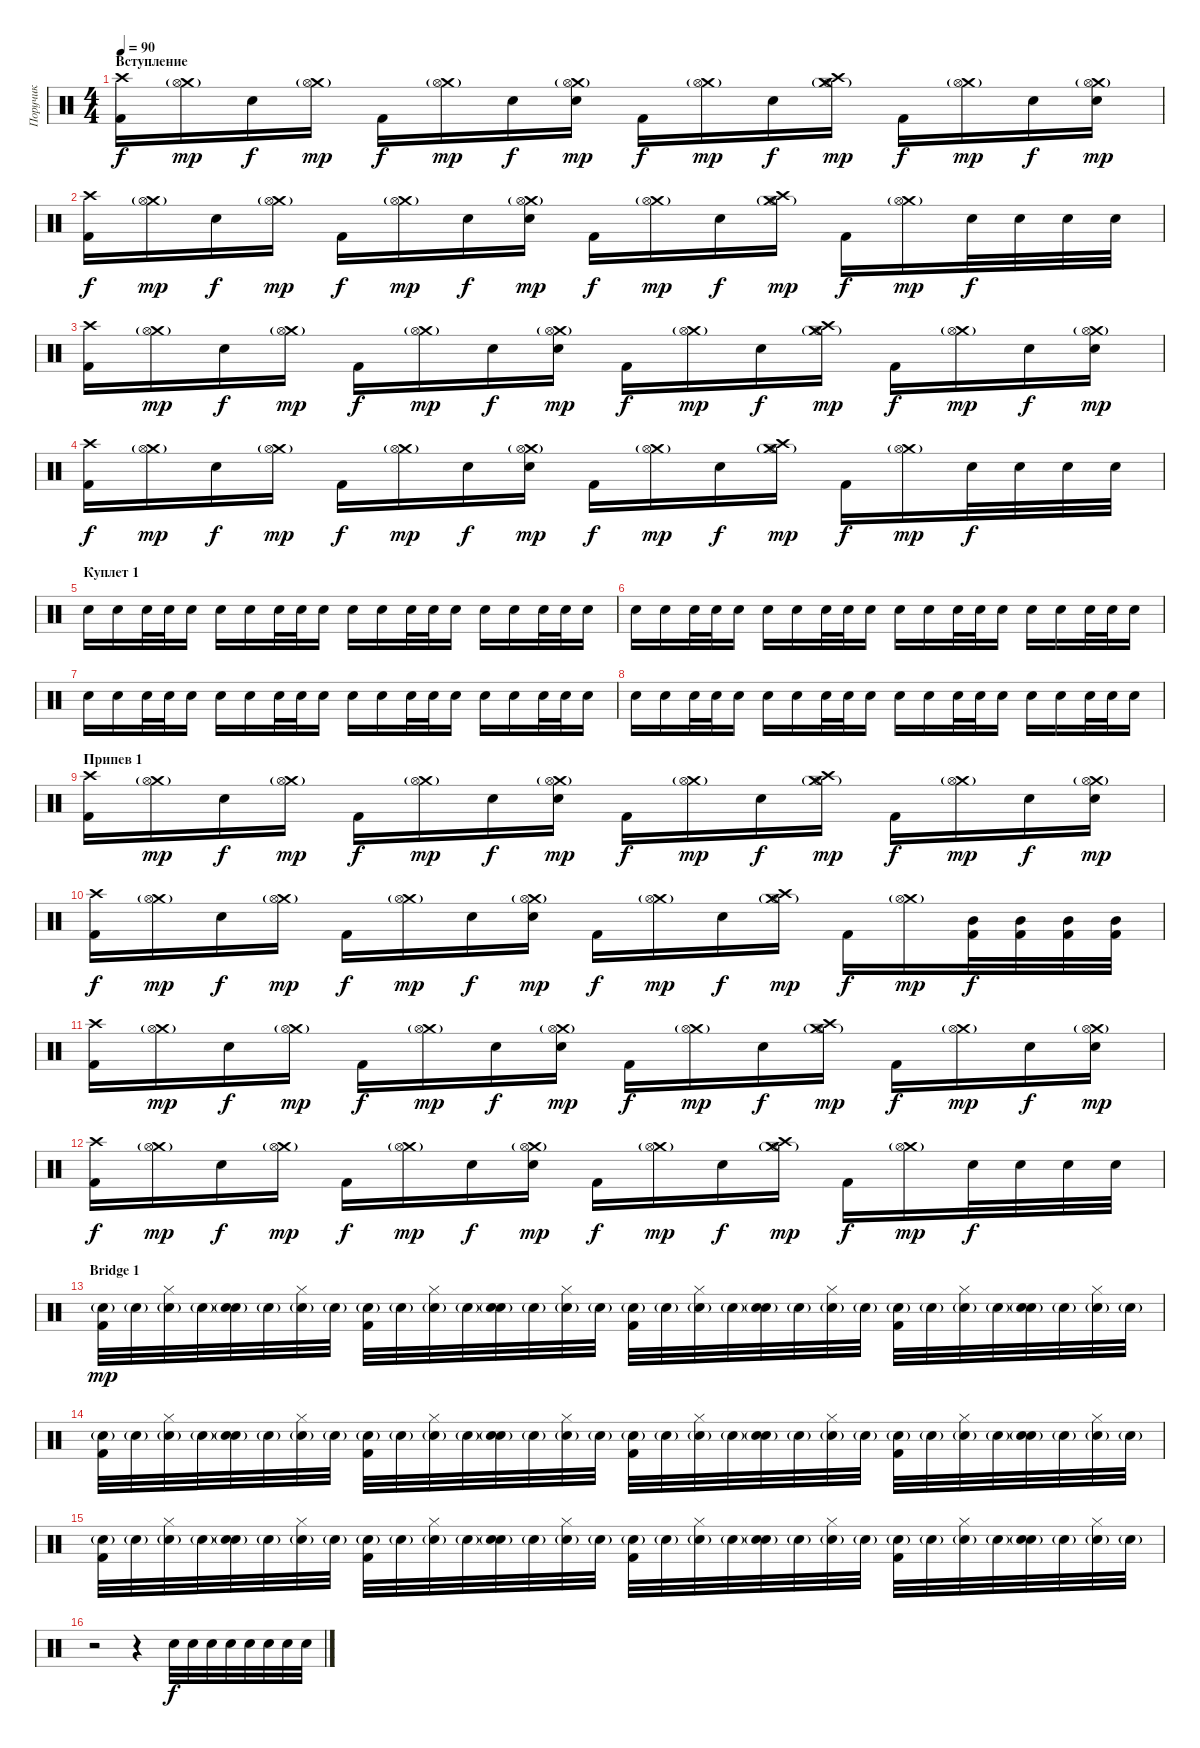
\track ("Поручик" "Поручик") {instrument percussion}
\staff {score}
\articulation defaults
\ts (4 4)
\section ("" "Вступление")
\tempo 90
\clef neutral
\ks c
("Crash high (hit)" "Kick (hit) 2").16{dy f} ("Crash medium (hit)"{g} "Hi-Hat (open)"{g}).16{dy mp} "Snare (hit) 2".16{dy f} ("Crash medium (hit)"{g} "Hi-Hat (open)"{g}).16{dy mp} "Kick (hit) 2".16{dy f} ("Crash medium (hit)"{g} "Hi-Hat (open)"{g}).16{dy mp} "Snare (hit) 2".16{dy f} ("Snare (hit) 2" "Crash medium (hit)"{g} "Hi-Hat (open)"{g}).16{dy mp} "Kick (hit) 2".16{dy f} ("Crash medium (hit)"{g} "Hi-Hat (open)"{g}).16{dy mp} "Snare (hit) 2".16{dy f} ("Crash high (hit)" "Crash medium (hit)"{g} "Hi-Hat (open)"{g}).16{dy mp} "Kick (hit) 2".16{dy f} ("Crash medium (hit)"{g} "Hi-Hat (open)"{g}).16{dy mp} "Snare (hit) 2".16{dy f} ("Snare (hit) 2" "Crash medium (hit)"{g} "Hi-Hat (open)"{g}).16{dy mp} |
("Crash high (hit)" "Kick (hit) 2").16{dy f} ("Crash medium (hit)"{g} "Hi-Hat (open)"{g}).16{dy mp} "Snare (hit) 2".16{dy f} ("Crash medium (hit)"{g} "Hi-Hat (open)"{g}).16{dy mp} "Kick (hit) 2".16{dy f} ("Crash medium (hit)"{g} "Hi-Hat (open)"{g}).16{dy mp} "Snare (hit) 2".16{dy f} ("Snare (hit) 2" "Crash medium (hit)"{g} "Hi-Hat (open)"{g}).16{dy mp} "Kick (hit) 2".16{dy f} ("Crash medium (hit)"{g} "Hi-Hat (open)"{g}).16{dy mp} "Snare (hit) 2".16{dy f} ("Crash high (hit)" "Crash medium (hit)"{g} "Hi-Hat (open)"{g}).16{dy mp} "Kick (hit) 2".16{dy f} ("Crash medium (hit)"{g} "Hi-Hat (open)"{g}).16{dy mp} "Snare (hit) 2".32{dy f} "Snare (hit) 2".32 "Snare (hit) 2".32 "Snare (hit) 2".32 |
("Crash high (hit)" "Kick (hit) 2").16 ("Crash medium (hit)"{g} "Hi-Hat (open)"{g}).16{dy mp} "Snare (hit) 2".16{dy f} ("Crash medium (hit)"{g} "Hi-Hat (open)"{g}).16{dy mp} "Kick (hit) 2".16{dy f} ("Crash medium (hit)"{g} "Hi-Hat (open)"{g}).16{dy mp} "Snare (hit) 2".16{dy f} ("Snare (hit) 2" "Crash medium (hit)"{g} "Hi-Hat (open)"{g}).16{dy mp} "Kick (hit) 2".16{dy f} ("Crash medium (hit)"{g} "Hi-Hat (open)"{g}).16{dy mp} "Snare (hit) 2".16{dy f} ("Crash high (hit)" "Crash medium (hit)"{g} "Hi-Hat (open)"{g}).16{dy mp} "Kick (hit) 2".16{dy f} ("Crash medium (hit)"{g} "Hi-Hat (open)"{g}).16{dy mp} "Snare (hit) 2".16{dy f} ("Snare (hit) 2" "Crash medium (hit)"{g} "Hi-Hat (open)"{g}).16{dy mp} |
("Crash high (hit)" "Kick (hit) 2").16{dy f} ("Crash medium (hit)"{g} "Hi-Hat (open)"{g}).16{dy mp} "Snare (hit) 2".16{dy f} ("Crash medium (hit)"{g} "Hi-Hat (open)"{g}).16{dy mp} "Kick (hit) 2".16{dy f} ("Crash medium (hit)"{g} "Hi-Hat (open)"{g}).16{dy mp} "Snare (hit) 2".16{dy f} ("Snare (hit) 2" "Crash medium (hit)"{g} "Hi-Hat (open)"{g}).16{dy mp} "Kick (hit) 2".16{dy f} ("Crash medium (hit)"{g} "Hi-Hat (open)"{g}).16{dy mp} "Snare (hit) 2".16{dy f} ("Crash high (hit)" "Crash medium (hit)"{g} "Hi-Hat (open)"{g}).16{dy mp} "Kick (hit) 2".16{dy f} ("Crash medium (hit)"{g} "Hi-Hat (open)"{g}).16{dy mp} "Snare (hit) 2".32{dy f} "Snare (hit) 2".32 "Snare (hit) 2".32 "Snare (hit) 2".32 |
\section ("" "Куплет 1")
"Snare (hit) 2".16 "Snare (hit) 2".16 "Snare (hit) 2".32 "Snare (hit) 2".32 "Snare (hit) 2".16 "Snare (hit) 2".16 "Snare (hit) 2".16 "Snare (hit) 2".32 "Snare (hit) 2".32 "Snare (hit) 2".16 "Snare (hit) 2".16 "Snare (hit) 2".16 "Snare (hit) 2".32 "Snare (hit) 2".32 "Snare (hit) 2".16 "Snare (hit) 2".16 "Snare (hit) 2".16 "Snare (hit) 2".32 "Snare (hit) 2".32 "Snare (hit) 2".16 |
"Snare (hit) 2".16 "Snare (hit) 2".16 "Snare (hit) 2".32 "Snare (hit) 2".32 "Snare (hit) 2".16 "Snare (hit) 2".16 "Snare (hit) 2".16 "Snare (hit) 2".32 "Snare (hit) 2".32 "Snare (hit) 2".16 "Snare (hit) 2".16 "Snare (hit) 2".16 "Snare (hit) 2".32 "Snare (hit) 2".32 "Snare (hit) 2".16 "Snare (hit) 2".16 "Snare (hit) 2".16 "Snare (hit) 2".32 "Snare (hit) 2".32 "Snare (hit) 2".16 |
"Snare (hit) 2".16 "Snare (hit) 2".16 "Snare (hit) 2".32 "Snare (hit) 2".32 "Snare (hit) 2".16 "Snare (hit) 2".16 "Snare (hit) 2".16 "Snare (hit) 2".32 "Snare (hit) 2".32 "Snare (hit) 2".16 "Snare (hit) 2".16 "Snare (hit) 2".16 "Snare (hit) 2".32 "Snare (hit) 2".32 "Snare (hit) 2".16 "Snare (hit) 2".16 "Snare (hit) 2".16 "Snare (hit) 2".32 "Snare (hit) 2".32 "Snare (hit) 2".16 |
"Snare (hit) 2".16 "Snare (hit) 2".16 "Snare (hit) 2".32 "Snare (hit) 2".32 "Snare (hit) 2".16 "Snare (hit) 2".16 "Snare (hit) 2".16 "Snare (hit) 2".32 "Snare (hit) 2".32 "Snare (hit) 2".16 "Snare (hit) 2".16 "Snare (hit) 2".16 "Snare (hit) 2".32 "Snare (hit) 2".32 "Snare (hit) 2".16 "Snare (hit) 2".16 "Snare (hit) 2".16 "Snare (hit) 2".32 "Snare (hit) 2".32 "Snare (hit) 2".16 |
\section ("" "Припев 1")
("Crash high (hit)" "Kick (hit) 2").16 ("Crash medium (hit)"{g} "Hi-Hat (open)"{g}).16{dy mp} "Snare (hit) 2".16{dy f} ("Crash medium (hit)"{g} "Hi-Hat (open)"{g}).16{dy mp} "Kick (hit) 2".16{dy f} ("Crash medium (hit)"{g} "Hi-Hat (open)"{g}).16{dy mp} "Snare (hit) 2".16{dy f} ("Snare (hit) 2" "Crash medium (hit)"{g} "Hi-Hat (open)"{g}).16{dy mp} "Kick (hit) 2".16{dy f} ("Crash medium (hit)"{g} "Hi-Hat (open)"{g}).16{dy mp} "Snare (hit) 2".16{dy f} ("Crash high (hit)" "Crash medium (hit)"{g} "Hi-Hat (open)"{g}).16{dy mp} "Kick (hit) 2".16{dy f} ("Crash medium (hit)"{g} "Hi-Hat (open)"{g}).16{dy mp} "Snare (hit) 2".16{dy f} ("Snare (hit) 2" "Crash medium (hit)"{g} "Hi-Hat (open)"{g}).16{dy mp} |
("Crash high (hit)" "Kick (hit) 2").16{dy f} ("Crash medium (hit)"{g} "Hi-Hat (open)"{g}).16{dy mp} "Snare (hit) 2".16{dy f} ("Crash medium (hit)"{g} "Hi-Hat (open)"{g}).16{dy mp} "Kick (hit) 2".16{dy f} ("Crash medium (hit)"{g} "Hi-Hat (open)"{g}).16{dy mp} "Snare (hit) 2".16{dy f} ("Snare (hit) 2" "Crash medium (hit)"{g} "Hi-Hat (open)"{g}).16{dy mp} "Kick (hit) 2".16{dy f} ("Crash medium (hit)"{g} "Hi-Hat (open)"{g}).16{dy mp} "Snare (hit) 2".16{dy f} ("Crash high (hit)" "Crash medium (hit)"{g} "Hi-Hat (open)"{g}).16{dy mp} "Kick (hit) 2".16{dy f} ("Crash medium (hit)"{g} "Hi-Hat (open)"{g}).16{dy mp} ("Kick (hit) 2" "Mid Tom (hit)").32{dy f} ("Kick (hit) 2" "Mid Tom (hit)").32 ("Kick (hit) 2" "Mid Tom (hit)").32 ("Kick (hit) 2" "Mid Tom (hit)").32 |
("Crash high (hit)" "Kick (hit) 2").16 ("Crash medium (hit)"{g} "Hi-Hat (open)"{g}).16{dy mp} "Snare (hit) 2".16{dy f} ("Crash medium (hit)"{g} "Hi-Hat (open)"{g}).16{dy mp} "Kick (hit) 2".16{dy f} ("Crash medium (hit)"{g} "Hi-Hat (open)"{g}).16{dy mp} "Snare (hit) 2".16{dy f} ("Snare (hit) 2" "Crash medium (hit)"{g} "Hi-Hat (open)"{g}).16{dy mp} "Kick (hit) 2".16{dy f} ("Crash medium (hit)"{g} "Hi-Hat (open)"{g}).16{dy mp} "Snare (hit) 2".16{dy f} ("Crash high (hit)" "Crash medium (hit)"{g} "Hi-Hat (open)"{g}).16{dy mp} "Kick (hit) 2".16{dy f} ("Crash medium (hit)"{g} "Hi-Hat (open)"{g}).16{dy mp} "Snare (hit) 2".16{dy f} ("Snare (hit) 2" "Crash medium (hit)"{g} "Hi-Hat (open)"{g}).16{dy mp} |
("Crash high (hit)" "Kick (hit) 2").16{dy f} ("Crash medium (hit)"{g} "Hi-Hat (open)"{g}).16{dy mp} "Snare (hit) 2".16{dy f} ("Crash medium (hit)"{g} "Hi-Hat (open)"{g}).16{dy mp} "Kick (hit) 2".16{dy f} ("Crash medium (hit)"{g} "Hi-Hat (open)"{g}).16{dy mp} "Snare (hit) 2".16{dy f} ("Snare (hit) 2" "Crash medium (hit)"{g} "Hi-Hat (open)"{g}).16{dy mp} "Kick (hit) 2".16{dy f} ("Crash medium (hit)"{g} "Hi-Hat (open)"{g}).16{dy mp} "Snare (hit) 2".16{dy f} ("Crash high (hit)" "Crash medium (hit)"{g} "Hi-Hat (open)"{g}).16{dy mp} "Kick (hit) 2".16{dy f} ("Crash medium (hit)"{g} "Hi-Hat (open)"{g}).16{dy mp} "Snare (hit) 2".32{dy f} "Snare (hit) 2".32 "Snare (hit) 2".32 "Snare (hit) 2".32 |
\section ("" "Bridge 1")
("Snare (hit) 2"{g} "Kick (hit) 2").32{dy mp} "Snare (hit) 2"{g}.32 ("Snare (hit) 2"{g} "Hi-Hat (closed)").32 "Snare (hit) 2"{g}.32 ("Snare (hit) 2"{g} "Snare (hit) 2").32 "Snare (hit) 2"{g}.32 ("Snare (hit) 2"{g} "Hi-Hat (closed)").32 "Snare (hit) 2"{g}.32 ("Snare (hit) 2"{g} "Kick (hit) 2").32 "Snare (hit) 2"{g}.32 ("Snare (hit) 2"{g} "Hi-Hat (closed)").32 "Snare (hit) 2"{g}.32 ("Snare (hit) 2"{g} "Snare (hit) 2").32 "Snare (hit) 2"{g}.32 ("Snare (hit) 2"{g} "Hi-Hat (closed)").32 "Snare (hit) 2"{g}.32 ("Snare (hit) 2"{g} "Kick (hit) 2").32 "Snare (hit) 2"{g}.32 ("Snare (hit) 2"{g} "Hi-Hat (closed)").32 "Snare (hit) 2"{g}.32 ("Snare (hit) 2"{g} "Snare (hit) 2").32 "Snare (hit) 2"{g}.32 ("Snare (hit) 2"{g} "Hi-Hat (closed)").32 "Snare (hit) 2"{g}.32 ("Snare (hit) 2"{g} "Kick (hit) 2").32 "Snare (hit) 2"{g}.32 ("Snare (hit) 2"{g} "Hi-Hat (closed)").32 "Snare (hit) 2"{g}.32 ("Snare (hit) 2"{g} "Snare (hit) 2").32 "Snare (hit) 2"{g}.32 ("Snare (hit) 2"{g} "Hi-Hat (closed)").32 "Snare (hit) 2"{g}.32 |
("Snare (hit) 2"{g} "Kick (hit) 2").32 "Snare (hit) 2"{g}.32 ("Snare (hit) 2"{g} "Hi-Hat (closed)").32 "Snare (hit) 2"{g}.32 ("Snare (hit) 2"{g} "Snare (hit) 2").32 "Snare (hit) 2"{g}.32 ("Snare (hit) 2"{g} "Hi-Hat (closed)").32 "Snare (hit) 2"{g}.32 ("Snare (hit) 2"{g} "Kick (hit) 2").32 "Snare (hit) 2"{g}.32 ("Snare (hit) 2"{g} "Hi-Hat (closed)").32 "Snare (hit) 2"{g}.32 ("Snare (hit) 2"{g} "Snare (hit) 2").32 "Snare (hit) 2"{g}.32 ("Snare (hit) 2"{g} "Hi-Hat (closed)").32 "Snare (hit) 2"{g}.32 ("Snare (hit) 2"{g} "Kick (hit) 2").32 "Snare (hit) 2"{g}.32 ("Snare (hit) 2"{g} "Hi-Hat (closed)").32 "Snare (hit) 2"{g}.32 ("Snare (hit) 2"{g} "Snare (hit) 2").32 "Snare (hit) 2"{g}.32 ("Snare (hit) 2"{g} "Hi-Hat (closed)").32 "Snare (hit) 2"{g}.32 ("Snare (hit) 2"{g} "Kick (hit) 2").32 "Snare (hit) 2"{g}.32 ("Snare (hit) 2"{g} "Hi-Hat (closed)").32 "Snare (hit) 2"{g}.32 ("Snare (hit) 2"{g} "Snare (hit) 2").32 "Snare (hit) 2"{g}.32 ("Snare (hit) 2"{g} "Hi-Hat (closed)").32 "Snare (hit) 2"{g}.32 |
("Snare (hit) 2"{g} "Kick (hit) 2").32 "Snare (hit) 2"{g}.32 ("Snare (hit) 2"{g} "Hi-Hat (closed)").32 "Snare (hit) 2"{g}.32 ("Snare (hit) 2"{g} "Snare (hit) 2").32 "Snare (hit) 2"{g}.32 ("Snare (hit) 2"{g} "Hi-Hat (closed)").32 "Snare (hit) 2"{g}.32 ("Snare (hit) 2"{g} "Kick (hit) 2").32 "Snare (hit) 2"{g}.32 ("Snare (hit) 2"{g} "Hi-Hat (closed)").32 "Snare (hit) 2"{g}.32 ("Snare (hit) 2"{g} "Snare (hit) 2").32 "Snare (hit) 2"{g}.32 ("Snare (hit) 2"{g} "Hi-Hat (closed)").32 "Snare (hit) 2"{g}.32 ("Snare (hit) 2"{g} "Kick (hit) 2").32 "Snare (hit) 2"{g}.32 ("Snare (hit) 2"{g} "Hi-Hat (closed)").32 "Snare (hit) 2"{g}.32 ("Snare (hit) 2"{g} "Snare (hit) 2").32 "Snare (hit) 2"{g}.32 ("Snare (hit) 2"{g} "Hi-Hat (closed)").32 "Snare (hit) 2"{g}.32 ("Snare (hit) 2"{g} "Kick (hit) 2").32 "Snare (hit) 2"{g}.32 ("Snare (hit) 2"{g} "Hi-Hat (closed)").32 "Snare (hit) 2"{g}.32 ("Snare (hit) 2"{g} "Snare (hit) 2").32 "Snare (hit) 2"{g}.32 ("Snare (hit) 2"{g} "Hi-Hat (closed)").32 "Snare (hit) 2"{g}.32 |
r.2 r.4 "Snare (hit) 2".32{dy f} "Snare (hit) 2".32 "Snare (hit) 2".32 "Snare (hit) 2".32 "Snare (hit) 2".32 "Snare (hit) 2".32 "Snare (hit) 2".32 "Snare (hit) 2".32
